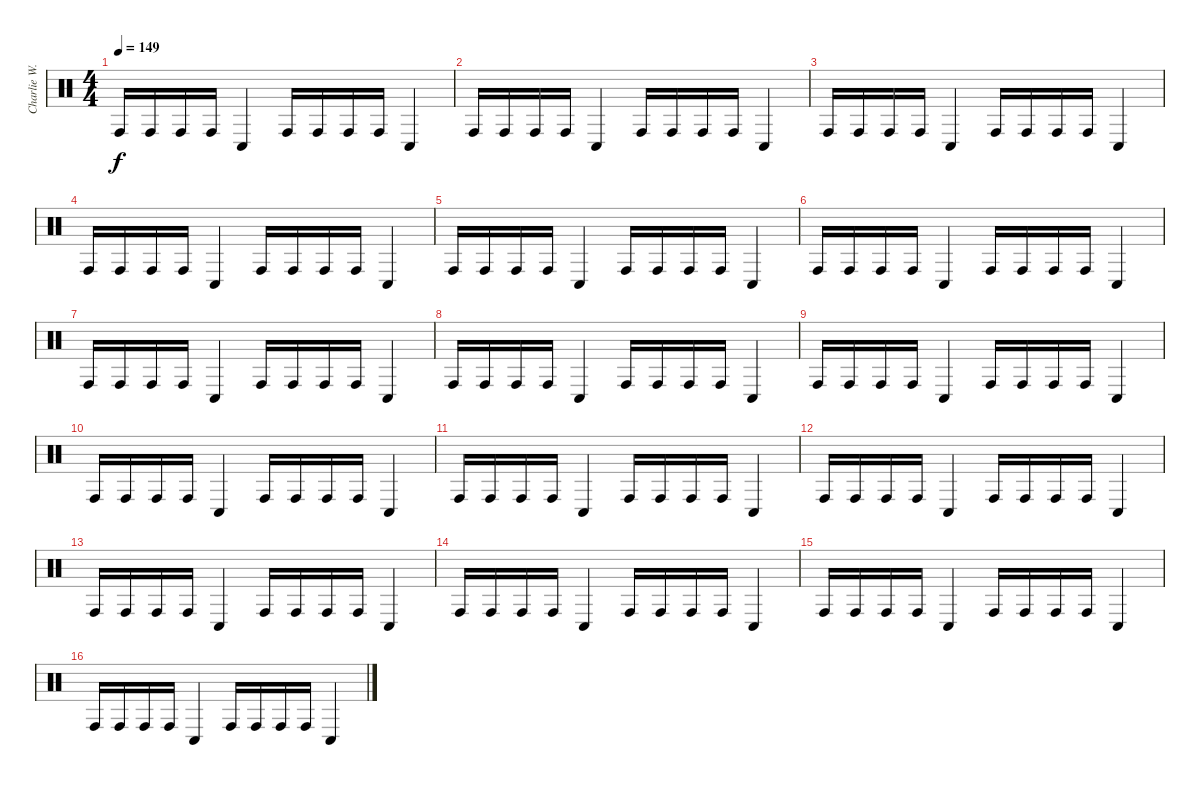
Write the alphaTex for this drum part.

\track ("Charlie W. drums" "Charlie W.") {instrument percussion}
\staff {score}
\articulation defaults
\ts (4 4)
\tempo 149
\clef neutral
\ks c "Conga high (hit)".16{dy f} "Conga high (hit)".16 "Conga high (hit)".16 "Conga high (hit)".16 "Conga low (hit)".4 "Conga high (hit)".16 "Conga high (hit)".16 "Conga high (hit)".16 "Conga high (hit)".16 "Conga low (hit)".4
|
"Conga high (hit)".16 "Conga high (hit)".16 "Conga high (hit)".16 "Conga high (hit)".16 "Conga low (hit)".4 "Conga high (hit)".16 "Conga high (hit)".16 "Conga high (hit)".16 "Conga high (hit)".16 "Conga low (hit)".4 |
"Conga high (hit)".16 "Conga high (hit)".16 "Conga high (hit)".16 "Conga high (hit)".16 "Conga low (hit)".4 "Conga high (hit)".16 "Conga high (hit)".16 "Conga high (hit)".16 "Conga high (hit)".16 "Conga low (hit)".4 |
"Conga high (hit)".16 "Conga high (hit)".16 "Conga high (hit)".16 "Conga high (hit)".16 "Conga low (hit)".4 "Conga high (hit)".16 "Conga high (hit)".16 "Conga high (hit)".16 "Conga high (hit)".16 "Conga low (hit)".4 |
"Conga high (hit)".16 "Conga high (hit)".16 "Conga high (hit)".16 "Conga high (hit)".16 "Conga low (hit)".4 "Conga high (hit)".16 "Conga high (hit)".16 "Conga high (hit)".16 "Conga high (hit)".16 "Conga low (hit)".4 |
"Conga high (hit)".16 "Conga high (hit)".16 "Conga high (hit)".16 "Conga high (hit)".16 "Conga low (hit)".4 "Conga high (hit)".16 "Conga high (hit)".16 "Conga high (hit)".16 "Conga high (hit)".16 "Conga low (hit)".4 |
"Conga high (hit)".16 "Conga high (hit)".16 "Conga high (hit)".16 "Conga high (hit)".16 "Conga low (hit)".4 "Conga high (hit)".16 "Conga high (hit)".16 "Conga high (hit)".16 "Conga high (hit)".16 "Conga low (hit)".4 |
"Conga high (hit)".16 "Conga high (hit)".16 "Conga high (hit)".16 "Conga high (hit)".16 "Conga low (hit)".4 "Conga high (hit)".16 "Conga high (hit)".16 "Conga high (hit)".16 "Conga high (hit)".16 "Conga low (hit)".4 |
"Conga high (hit)".16 "Conga high (hit)".16 "Conga high (hit)".16 "Conga high (hit)".16 "Conga low (hit)".4 "Conga high (hit)".16 "Conga high (hit)".16 "Conga high (hit)".16 "Conga high (hit)".16 "Conga low (hit)".4 |
"Conga high (hit)".16 "Conga high (hit)".16 "Conga high (hit)".16 "Conga high (hit)".16 "Conga low (hit)".4 "Conga high (hit)".16 "Conga high (hit)".16 "Conga high (hit)".16 "Conga high (hit)".16 "Conga low (hit)".4 |
"Conga high (hit)".16 "Conga high (hit)".16 "Conga high (hit)".16 "Conga high (hit)".16 "Conga low (hit)".4 "Conga high (hit)".16 "Conga high (hit)".16 "Conga high (hit)".16 "Conga high (hit)".16 "Conga low (hit)".4 |
"Conga high (hit)".16 "Conga high (hit)".16 "Conga high (hit)".16 "Conga high (hit)".16 "Conga low (hit)".4 "Conga high (hit)".16 "Conga high (hit)".16 "Conga high (hit)".16 "Conga high (hit)".16 "Conga low (hit)".4 |
"Conga high (hit)".16 "Conga high (hit)".16 "Conga high (hit)".16 "Conga high (hit)".16 "Conga low (hit)".4 "Conga high (hit)".16 "Conga high (hit)".16 "Conga high (hit)".16 "Conga high (hit)".16 "Conga low (hit)".4 |
"Conga high (hit)".16 "Conga high (hit)".16 "Conga high (hit)".16 "Conga high (hit)".16 "Conga low (hit)".4 "Conga high (hit)".16 "Conga high (hit)".16 "Conga high (hit)".16 "Conga high (hit)".16 "Conga low (hit)".4 |
"Conga high (hit)".16 "Conga high (hit)".16 "Conga high (hit)".16 "Conga high (hit)".16 "Conga low (hit)".4 "Conga high (hit)".16 "Conga high (hit)".16 "Conga high (hit)".16 "Conga high (hit)".16 "Conga low (hit)".4 |
"Conga high (hit)".16 "Conga high (hit)".16 "Conga high (hit)".16 "Conga high (hit)".16 "Conga low (hit)".4 "Conga high (hit)".16 "Conga high (hit)".16 "Conga high (hit)".16 "Conga high (hit)".16 "Conga low (hit)".4
